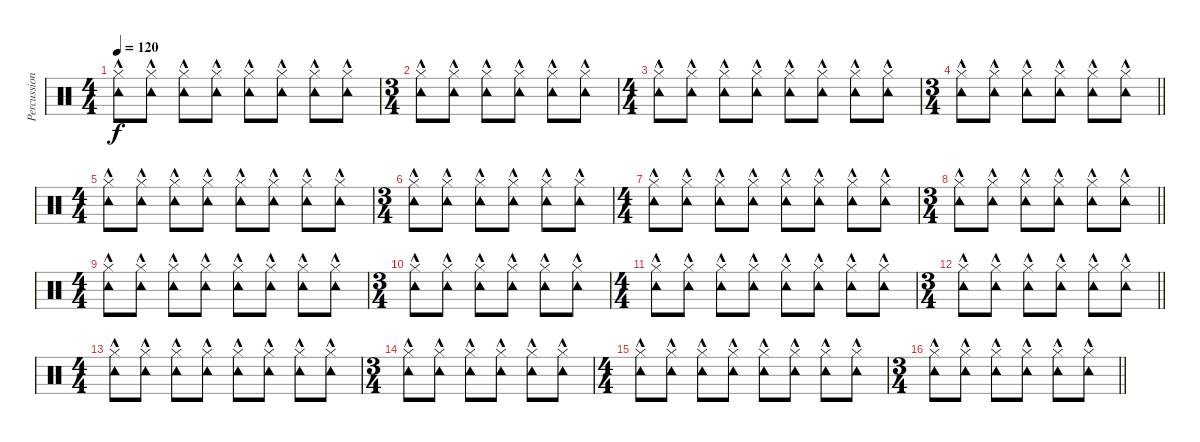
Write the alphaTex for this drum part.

\track ("Percussion" "Percussion") {instrument percussion}
\staff {score}
\articulation defaults
\ts (4 4)
\tempo 120
\clef neutral
\ks c
("Tambourine (hit)"{hac} "Hi-Hat (closed)").8{dy f} ("Tambourine (hit)"{hac} "Hi-Hat (closed)").8 ("Tambourine (hit)"{hac} "Hi-Hat (closed)").8 ("Tambourine (hit)"{hac} "Hi-Hat (closed)").8 ("Tambourine (hit)"{hac} "Hi-Hat (closed)").8 ("Tambourine (hit)"{hac} "Hi-Hat (closed)").8 ("Tambourine (hit)"{hac} "Hi-Hat (closed)").8 ("Tambourine (hit)"{hac} "Hi-Hat (closed)").8 |
\ts (3 4)
("Tambourine (hit)"{hac} "Hi-Hat (closed)").8 ("Tambourine (hit)"{hac} "Hi-Hat (closed)").8 ("Tambourine (hit)"{hac} "Hi-Hat (closed)").8 ("Tambourine (hit)"{hac} "Hi-Hat (closed)").8 ("Tambourine (hit)"{hac} "Hi-Hat (closed)").8 ("Tambourine (hit)"{hac} "Hi-Hat (closed)").8 |
\ts (4 4)
("Tambourine (hit)"{hac} "Hi-Hat (closed)").8 ("Tambourine (hit)"{hac} "Hi-Hat (closed)").8 ("Tambourine (hit)"{hac} "Hi-Hat (closed)").8 ("Tambourine (hit)"{hac} "Hi-Hat (closed)").8 ("Tambourine (hit)"{hac} "Hi-Hat (closed)").8 ("Tambourine (hit)"{hac} "Hi-Hat (closed)").8 ("Tambourine (hit)"{hac} "Hi-Hat (closed)").8 ("Tambourine (hit)"{hac} "Hi-Hat (closed)").8 |
\ts (3 4)
\barLineRight lightlight
("Tambourine (hit)"{hac} "Hi-Hat (closed)").8 ("Tambourine (hit)"{hac} "Hi-Hat (closed)").8 ("Tambourine (hit)"{hac} "Hi-Hat (closed)").8 ("Tambourine (hit)"{hac} "Hi-Hat (closed)").8 ("Tambourine (hit)"{hac} "Hi-Hat (closed)").8 ("Tambourine (hit)"{hac} "Hi-Hat (closed)").8 |
\ts (4 4)
("Tambourine (hit)"{hac} "Hi-Hat (closed)").8 ("Tambourine (hit)"{hac} "Hi-Hat (closed)").8 ("Tambourine (hit)"{hac} "Hi-Hat (closed)").8 ("Tambourine (hit)"{hac} "Hi-Hat (closed)").8 ("Tambourine (hit)"{hac} "Hi-Hat (closed)").8 ("Tambourine (hit)"{hac} "Hi-Hat (closed)").8 ("Tambourine (hit)"{hac} "Hi-Hat (closed)").8 ("Tambourine (hit)"{hac} "Hi-Hat (closed)").8 |
\ts (3 4)
("Tambourine (hit)"{hac} "Hi-Hat (closed)").8 ("Tambourine (hit)"{hac} "Hi-Hat (closed)").8 ("Tambourine (hit)"{hac} "Hi-Hat (closed)").8 ("Tambourine (hit)"{hac} "Hi-Hat (closed)").8 ("Tambourine (hit)"{hac} "Hi-Hat (closed)").8 ("Tambourine (hit)"{hac} "Hi-Hat (closed)").8 |
\ts (4 4)
("Tambourine (hit)"{hac} "Hi-Hat (closed)").8 ("Tambourine (hit)"{hac} "Hi-Hat (closed)").8 ("Tambourine (hit)"{hac} "Hi-Hat (closed)").8 ("Tambourine (hit)"{hac} "Hi-Hat (closed)").8 ("Tambourine (hit)"{hac} "Hi-Hat (closed)").8 ("Tambourine (hit)"{hac} "Hi-Hat (closed)").8 ("Tambourine (hit)"{hac} "Hi-Hat (closed)").8 ("Tambourine (hit)"{hac} "Hi-Hat (closed)").8 |
\ts (3 4)
\barLineRight lightlight
("Tambourine (hit)"{hac} "Hi-Hat (closed)").8 ("Tambourine (hit)"{hac} "Hi-Hat (closed)").8 ("Tambourine (hit)"{hac} "Hi-Hat (closed)").8 ("Tambourine (hit)"{hac} "Hi-Hat (closed)").8 ("Tambourine (hit)"{hac} "Hi-Hat (closed)").8 ("Tambourine (hit)"{hac} "Hi-Hat (closed)").8 |
\ts (4 4)
("Tambourine (hit)"{hac} "Hi-Hat (closed)").8 ("Tambourine (hit)"{hac} "Hi-Hat (closed)").8 ("Tambourine (hit)"{hac} "Hi-Hat (closed)").8 ("Tambourine (hit)"{hac} "Hi-Hat (closed)").8 ("Tambourine (hit)"{hac} "Hi-Hat (closed)").8 ("Tambourine (hit)"{hac} "Hi-Hat (closed)").8 ("Tambourine (hit)"{hac} "Hi-Hat (closed)").8 ("Tambourine (hit)"{hac} "Hi-Hat (closed)").8 |
\ts (3 4)
("Tambourine (hit)"{hac} "Hi-Hat (closed)").8 ("Tambourine (hit)"{hac} "Hi-Hat (closed)").8 ("Tambourine (hit)"{hac} "Hi-Hat (closed)").8 ("Tambourine (hit)"{hac} "Hi-Hat (closed)").8 ("Tambourine (hit)"{hac} "Hi-Hat (closed)").8 ("Tambourine (hit)"{hac} "Hi-Hat (closed)").8 |
\ts (4 4)
("Tambourine (hit)"{hac} "Hi-Hat (closed)").8 ("Tambourine (hit)"{hac} "Hi-Hat (closed)").8 ("Tambourine (hit)"{hac} "Hi-Hat (closed)").8 ("Tambourine (hit)"{hac} "Hi-Hat (closed)").8 ("Tambourine (hit)"{hac} "Hi-Hat (closed)").8 ("Tambourine (hit)"{hac} "Hi-Hat (closed)").8 ("Tambourine (hit)"{hac} "Hi-Hat (closed)").8 ("Tambourine (hit)"{hac} "Hi-Hat (closed)").8 |
\ts (3 4)
\barLineRight lightlight
("Tambourine (hit)"{hac} "Hi-Hat (closed)").8 ("Tambourine (hit)"{hac} "Hi-Hat (closed)").8 ("Tambourine (hit)"{hac} "Hi-Hat (closed)").8 ("Tambourine (hit)"{hac} "Hi-Hat (closed)").8 ("Tambourine (hit)"{hac} "Hi-Hat (closed)").8 ("Tambourine (hit)"{hac} "Hi-Hat (closed)").8 |
\ts (4 4)
("Tambourine (hit)"{hac} "Hi-Hat (closed)").8 ("Tambourine (hit)"{hac} "Hi-Hat (closed)").8 ("Tambourine (hit)"{hac} "Hi-Hat (closed)").8 ("Tambourine (hit)"{hac} "Hi-Hat (closed)").8 ("Tambourine (hit)"{hac} "Hi-Hat (closed)").8 ("Tambourine (hit)"{hac} "Hi-Hat (closed)").8 ("Tambourine (hit)"{hac} "Hi-Hat (closed)").8 ("Tambourine (hit)"{hac} "Hi-Hat (closed)").8 |
\ts (3 4)
("Tambourine (hit)"{hac} "Hi-Hat (closed)").8 ("Tambourine (hit)"{hac} "Hi-Hat (closed)").8 ("Tambourine (hit)"{hac} "Hi-Hat (closed)").8 ("Tambourine (hit)"{hac} "Hi-Hat (closed)").8 ("Tambourine (hit)"{hac} "Hi-Hat (closed)").8 ("Tambourine (hit)"{hac} "Hi-Hat (closed)").8 |
\ts (4 4)
("Tambourine (hit)"{hac} "Hi-Hat (closed)").8 ("Tambourine (hit)"{hac} "Hi-Hat (closed)").8 ("Tambourine (hit)"{hac} "Hi-Hat (closed)").8 ("Tambourine (hit)"{hac} "Hi-Hat (closed)").8 ("Tambourine (hit)"{hac} "Hi-Hat (closed)").8 ("Tambourine (hit)"{hac} "Hi-Hat (closed)").8 ("Tambourine (hit)"{hac} "Hi-Hat (closed)").8 ("Tambourine (hit)"{hac} "Hi-Hat (closed)").8 |
\ts (3 4)
\barLineRight lightlight
("Tambourine (hit)"{hac} "Hi-Hat (closed)").8 ("Tambourine (hit)"{hac} "Hi-Hat (closed)").8 ("Tambourine (hit)"{hac} "Hi-Hat (closed)").8 ("Tambourine (hit)"{hac} "Hi-Hat (closed)").8 ("Tambourine (hit)"{hac} "Hi-Hat (closed)").8 ("Tambourine (hit)"{hac} "Hi-Hat (closed)").8
